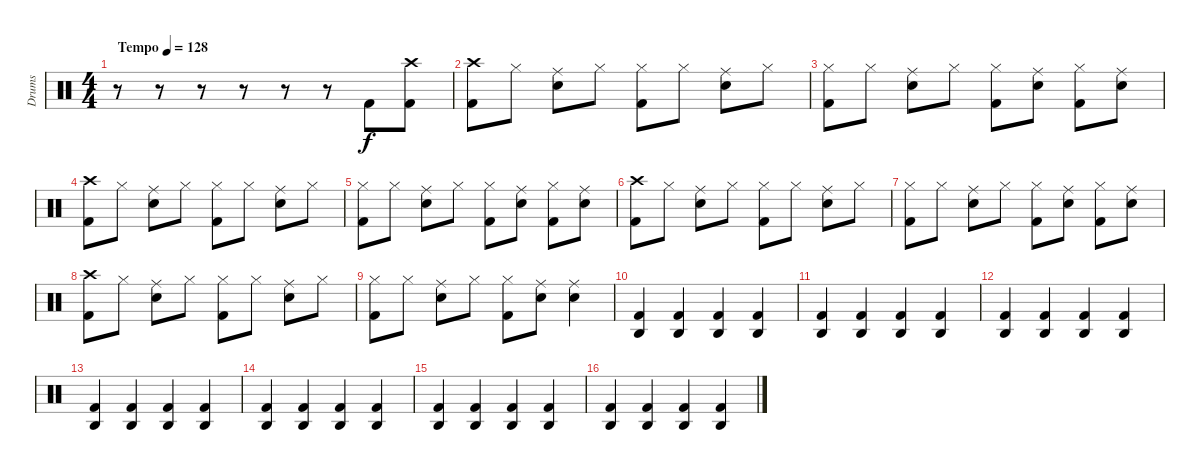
\track ("Drums" "Drums") {instrument percussion}
\staff {score}
\articulation defaults
\ts (4 4)
\tempo (128 "Tempo")
\clef neutral
\ks c
r.8{dy f} r.8 r.8 r.8 r.8 r.8 "Kick (hit) 2".8 ("Crash high (hit)" "Kick (hit) 2").8 |
("Crash high (hit)" "Kick (hit) 2").8 "Hi-Hat (closed)".8 ("Ride (middle)" "Snare (hit) 2").8 "Hi-Hat (closed)".8 ("Hi-Hat (closed)" "Kick (hit) 2").8 "Hi-Hat (closed)".8 ("Ride (middle)" "Snare (hit) 2").8 "Hi-Hat (closed)".8 |
("Hi-Hat (closed)" "Kick (hit) 2").8 "Hi-Hat (closed)".8 ("Ride (middle)" "Snare (hit) 2").8 "Hi-Hat (closed)".8 ("Hi-Hat (closed)" "Kick (hit) 2").8 ("Ride (middle)" "Snare (hit) 2").8 ("Hi-Hat (closed)" "Kick (hit) 2").8 ("Ride (middle)" "Snare (hit) 2").8 |
("Crash high (hit)" "Kick (hit) 2").8 "Hi-Hat (closed)".8 ("Ride (middle)" "Snare (hit) 2").8 "Hi-Hat (closed)".8 ("Hi-Hat (closed)" "Kick (hit) 2").8 "Hi-Hat (closed)".8 ("Ride (middle)" "Snare (hit) 2").8 "Hi-Hat (closed)".8 |
("Hi-Hat (closed)" "Kick (hit) 2").8 "Hi-Hat (closed)".8 ("Ride (middle)" "Snare (hit) 2").8 "Hi-Hat (closed)".8 ("Hi-Hat (closed)" "Kick (hit) 2").8 ("Ride (middle)" "Snare (hit) 2").8 ("Hi-Hat (closed)" "Kick (hit) 2").8 ("Ride (middle)" "Snare (hit) 2").8 |
("Crash high (hit)" "Kick (hit) 2").8 "Hi-Hat (closed)".8 ("Ride (middle)" "Snare (hit) 2").8 "Hi-Hat (closed)".8 ("Hi-Hat (closed)" "Kick (hit) 2").8 "Hi-Hat (closed)".8 ("Ride (middle)" "Snare (hit) 2").8 "Hi-Hat (closed)".8 |
("Hi-Hat (closed)" "Kick (hit) 2").8 "Hi-Hat (closed)".8 ("Ride (middle)" "Snare (hit) 2").8 "Hi-Hat (closed)".8 ("Hi-Hat (closed)" "Kick (hit) 2").8 ("Ride (middle)" "Snare (hit) 2").8 ("Hi-Hat (closed)" "Kick (hit) 2").8 ("Ride (middle)" "Snare (hit) 2").8 |
("Crash high (hit)" "Kick (hit) 2").8 "Hi-Hat (closed)".8 ("Ride (middle)" "Snare (hit) 2").8 "Hi-Hat (closed)".8 ("Hi-Hat (closed)" "Kick (hit) 2").8 "Hi-Hat (closed)".8 ("Ride (middle)" "Snare (hit) 2").8 "Hi-Hat (closed)".8 |
("Hi-Hat (closed)" "Kick (hit) 2").8 "Hi-Hat (closed)".8 ("Ride (middle)" "Snare (hit) 2").8 "Hi-Hat (closed)".8 ("Hi-Hat (closed)" "Kick (hit) 2").8 ("Ride (middle)" "Snare (hit) 2").8 ("Ride (middle)" "Snare (hit) 2").4 |
("Agogo high (hit)" "Kick (hit) 2").4 ("Agogo high (hit)" "Kick (hit) 2").4 ("Agogo high (hit)" "Kick (hit) 2").4 ("Agogo high (hit)" "Kick (hit) 2").4 |
("Agogo high (hit)" "Kick (hit) 2").4 ("Agogo high (hit)" "Kick (hit) 2").4 ("Agogo high (hit)" "Kick (hit) 2").4 ("Agogo high (hit)" "Kick (hit) 2").4 |
("Agogo high (hit)" "Kick (hit) 2").4 ("Agogo high (hit)" "Kick (hit) 2").4 ("Agogo high (hit)" "Kick (hit) 2").4 ("Agogo high (hit)" "Kick (hit) 2").4 |
("Agogo high (hit)" "Kick (hit) 2").4 ("Agogo high (hit)" "Kick (hit) 2").4 ("Agogo high (hit)" "Kick (hit) 2").4 ("Agogo high (hit)" "Kick (hit) 2").4 |
("Agogo high (hit)" "Kick (hit) 2").4 ("Agogo high (hit)" "Kick (hit) 2").4 ("Agogo high (hit)" "Kick (hit) 2").4 ("Agogo high (hit)" "Kick (hit) 2").4 |
("Agogo high (hit)" "Kick (hit) 2").4 ("Agogo high (hit)" "Kick (hit) 2").4 ("Agogo high (hit)" "Kick (hit) 2").4 ("Agogo high (hit)" "Kick (hit) 2").4 |
("Agogo high (hit)" "Kick (hit) 2").4 ("Agogo high (hit)" "Kick (hit) 2").4 ("Agogo high (hit)" "Kick (hit) 2").4 ("Agogo high (hit)" "Kick (hit) 2").4
